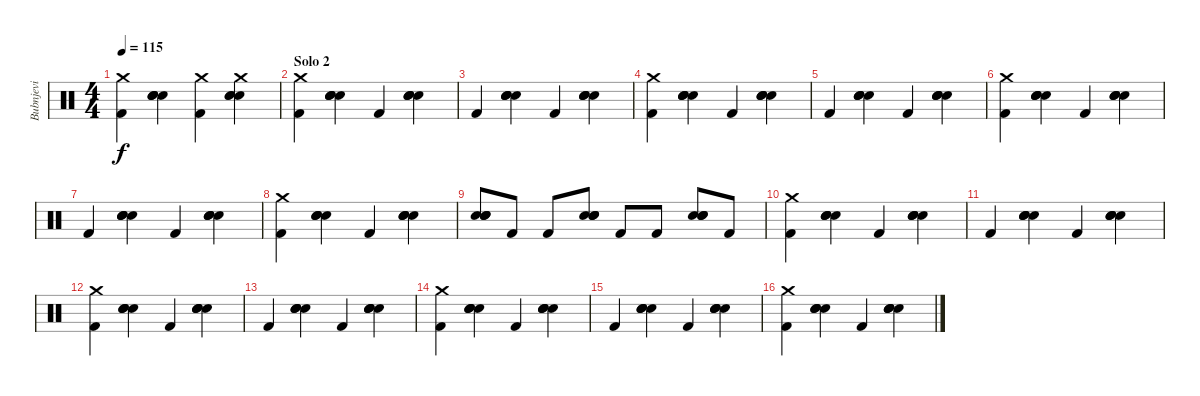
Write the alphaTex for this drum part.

\track ("Bubnjevi" "Bubnjevi") {instrument percussion}
\staff {score}
\articulation defaults
\ts (4 4)
\tempo 115
\clef neutral
\ks c
("Crash medium (hit)" "Kick (hit) 2").4{dy f} ("Electric Snare (hit)" "Electric Snare (hit)" "Electric Snare (hit)" "Electric Snare (hit)").4 ("Crash medium (hit)" "Kick (hit) 2").4 ("Electric Snare (hit)" "Electric Snare (hit)" "Crash medium (hit)" "Electric Snare (hit)").4 |
\section ("" "Solo 2")
("Crash medium (hit)" "Kick (hit) 2").4 ("Electric Snare (hit)" "Electric Snare (hit)" "Electric Snare (hit)" "Electric Snare (hit)").4 "Kick (hit) 2".4 ("Electric Snare (hit)" "Electric Snare (hit)" "Electric Snare (hit)" "Electric Snare (hit)").4 |
"Kick (hit) 2".4 ("Electric Snare (hit)" "Electric Snare (hit)" "Electric Snare (hit)" "Electric Snare (hit)").4 "Kick (hit) 2".4 ("Electric Snare (hit)" "Electric Snare (hit)" "Electric Snare (hit)" "Electric Snare (hit)").4 |
("Crash medium (hit)" "Kick (hit) 2").4 ("Electric Snare (hit)" "Electric Snare (hit)" "Electric Snare (hit)" "Electric Snare (hit)").4 "Kick (hit) 2".4 ("Electric Snare (hit)" "Electric Snare (hit)" "Electric Snare (hit)" "Electric Snare (hit)").4 |
"Kick (hit) 2".4 ("Electric Snare (hit)" "Electric Snare (hit)" "Electric Snare (hit)" "Electric Snare (hit)").4 "Kick (hit) 2".4 ("Electric Snare (hit)" "Electric Snare (hit)" "Electric Snare (hit)" "Electric Snare (hit)").4 |
("Crash medium (hit)" "Kick (hit) 2").4 ("Electric Snare (hit)" "Electric Snare (hit)" "Electric Snare (hit)" "Electric Snare (hit)").4 "Kick (hit) 2".4 ("Electric Snare (hit)" "Electric Snare (hit)" "Electric Snare (hit)" "Electric Snare (hit)").4 |
"Kick (hit) 2".4 ("Electric Snare (hit)" "Electric Snare (hit)" "Electric Snare (hit)" "Electric Snare (hit)").4 "Kick (hit) 2".4 ("Electric Snare (hit)" "Electric Snare (hit)" "Electric Snare (hit)" "Electric Snare (hit)").4 |
("Crash medium (hit)" "Kick (hit) 2").4 ("Electric Snare (hit)" "Electric Snare (hit)" "Electric Snare (hit)" "Electric Snare (hit)").4 "Kick (hit) 2".4 ("Electric Snare (hit)" "Electric Snare (hit)" "Electric Snare (hit)" "Electric Snare (hit)").4 |
("Electric Snare (hit)" "Electric Snare (hit)" "Electric Snare (hit)" "Electric Snare (hit)").8 "Kick (hit) 2".8 "Kick (hit) 2".8 ("Electric Snare (hit)" "Electric Snare (hit)" "Electric Snare (hit)" "Electric Snare (hit)").8 "Kick (hit) 2".8 "Kick (hit) 2".8 ("Electric Snare (hit)" "Electric Snare (hit)" "Electric Snare (hit)" "Electric Snare (hit)").8 "Kick (hit) 2".8 |
("Crash medium (hit)" "Kick (hit) 2").4 ("Electric Snare (hit)" "Electric Snare (hit)" "Electric Snare (hit)" "Electric Snare (hit)").4 "Kick (hit) 2".4 ("Electric Snare (hit)" "Electric Snare (hit)" "Electric Snare (hit)" "Electric Snare (hit)").4 |
"Kick (hit) 2".4 ("Electric Snare (hit)" "Electric Snare (hit)" "Electric Snare (hit)" "Electric Snare (hit)").4 "Kick (hit) 2".4 ("Electric Snare (hit)" "Electric Snare (hit)" "Electric Snare (hit)" "Electric Snare (hit)").4 |
("Crash medium (hit)" "Kick (hit) 2").4 ("Electric Snare (hit)" "Electric Snare (hit)" "Electric Snare (hit)" "Electric Snare (hit)").4 "Kick (hit) 2".4 ("Electric Snare (hit)" "Electric Snare (hit)" "Electric Snare (hit)" "Electric Snare (hit)").4 |
"Kick (hit) 2".4 ("Electric Snare (hit)" "Electric Snare (hit)" "Electric Snare (hit)" "Electric Snare (hit)").4 "Kick (hit) 2".4 ("Electric Snare (hit)" "Electric Snare (hit)" "Electric Snare (hit)" "Electric Snare (hit)").4 |
("Crash medium (hit)" "Kick (hit) 2").4 ("Electric Snare (hit)" "Electric Snare (hit)" "Electric Snare (hit)" "Electric Snare (hit)").4 "Kick (hit) 2".4 ("Electric Snare (hit)" "Electric Snare (hit)" "Electric Snare (hit)" "Electric Snare (hit)").4 |
"Kick (hit) 2".4 ("Electric Snare (hit)" "Electric Snare (hit)" "Electric Snare (hit)" "Electric Snare (hit)").4 "Kick (hit) 2".4 ("Electric Snare (hit)" "Electric Snare (hit)" "Electric Snare (hit)" "Electric Snare (hit)").4 |
("Crash medium (hit)" "Kick (hit) 2").4 ("Electric Snare (hit)" "Electric Snare (hit)" "Electric Snare (hit)" "Electric Snare (hit)").4 "Kick (hit) 2".4 ("Electric Snare (hit)" "Electric Snare (hit)" "Electric Snare (hit)" "Electric Snare (hit)").4
